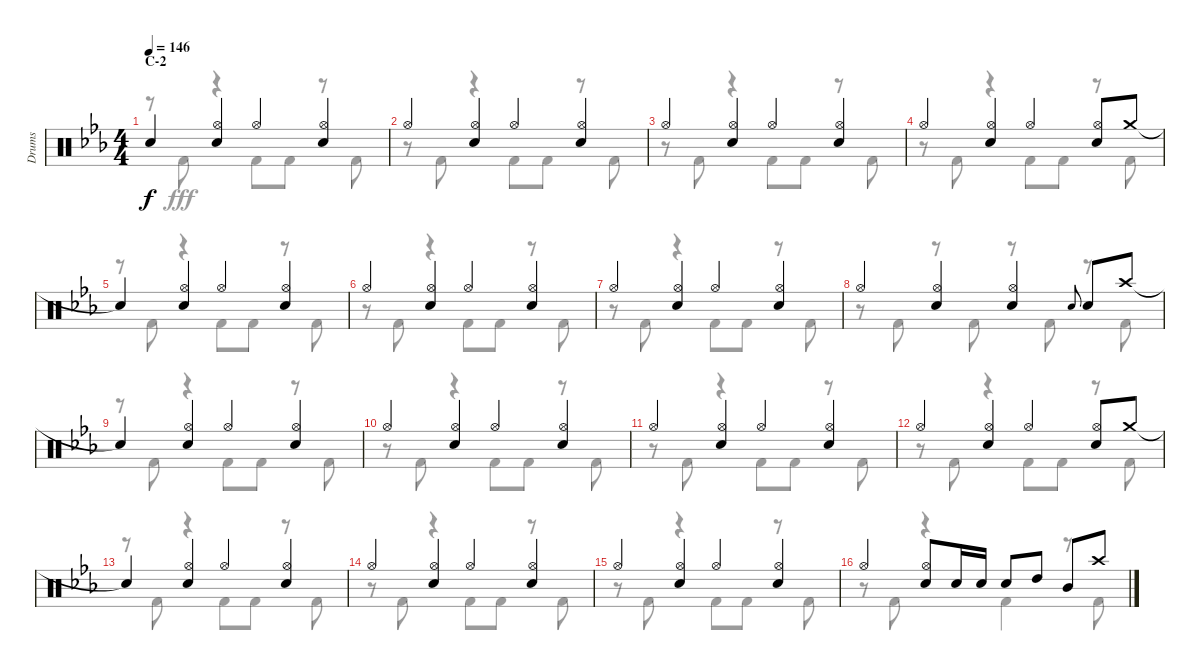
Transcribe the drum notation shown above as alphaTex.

\track ("Drums" "Drums") {instrument percussion}
\staff {score}
\articulation defaults
\voice
\ts (4 4)
\section ("" "C-2")
\tempo 146
\clef neutral
\ks eb "Snare (hit)"{t}.4{dy f}
("Hi-Hat (open)" "Snare (hit) 2").4 "Hi-Hat (open)".4 ("Hi-Hat (open)" "Snare (hit) 2").4 |
"Hi-Hat (open)".4 ("Hi-Hat (open)" "Snare (hit) 2").4 "Hi-Hat (open)".4 ("Hi-Hat (open)" "Snare (hit) 2").4 |
"Hi-Hat (open)".4 ("Hi-Hat (open)" "Snare (hit) 2").4 "Hi-Hat (open)".4 ("Hi-Hat (open)" "Snare (hit) 2").4 |
"Hi-Hat (open)".4 ("Hi-Hat (open)" "Snare (hit) 2").4 "Hi-Hat (open)".4 ("Hi-Hat (open)" "Snare (hit) 2").8 "Crash medium (hit)".8 |
"Snare (hit)"{t}.4 ("Hi-Hat (open)" "Snare (hit) 2").4 "Hi-Hat (open)".4 ("Hi-Hat (open)" "Snare (hit) 2").4 |
"Hi-Hat (open)".4 ("Hi-Hat (open)" "Snare (hit) 2").4 "Hi-Hat (open)".4 ("Hi-Hat (open)" "Snare (hit) 2").4 |
"Hi-Hat (open)".4 ("Hi-Hat (open)" "Snare (hit) 2").4 "Hi-Hat (open)".4 ("Hi-Hat (open)" "Snare (hit) 2").4 |
"Hi-Hat (open)".4 ("Hi-Hat (open)" "Snare (hit) 2").4 ("Hi-Hat (open)" "Snare (hit) 2").4 "Snare (hit) 2".8{gr onbeat} "Snare (hit) 2".8 "Crash high (hit)".8 |
"Snare (hit)"{t}.4 ("Hi-Hat (open)" "Snare (hit) 2").4 "Hi-Hat (open)".4 ("Hi-Hat (open)" "Snare (hit) 2").4 |
"Hi-Hat (open)".4 ("Hi-Hat (open)" "Snare (hit) 2").4 "Hi-Hat (open)".4 ("Hi-Hat (open)" "Snare (hit) 2").4 |
"Hi-Hat (open)".4 ("Hi-Hat (open)" "Snare (hit) 2").4 "Hi-Hat (open)".4 ("Hi-Hat (open)" "Snare (hit) 2").4 |
"Hi-Hat (open)".4 ("Hi-Hat (open)" "Snare (hit) 2").4 "Hi-Hat (open)".4 ("Hi-Hat (open)" "Snare (hit) 2").8 "Crash medium (hit)".8 |
"Snare (hit)"{t}.4 ("Hi-Hat (open)" "Snare (hit) 2").4 "Hi-Hat (open)".4 ("Hi-Hat (open)" "Snare (hit) 2").4 |
"Hi-Hat (open)".4 ("Hi-Hat (open)" "Snare (hit) 2").4 "Hi-Hat (open)".4 ("Hi-Hat (open)" "Snare (hit) 2").4 |
"Hi-Hat (open)".4 ("Hi-Hat (open)" "Snare (hit) 2").4 "Hi-Hat (open)".4 ("Hi-Hat (open)" "Snare (hit) 2").4 |
"Hi-Hat (open)".4 ("Hi-Hat (open)" "Snare (hit) 2").8 "Snare (hit) 2".16 "Snare (hit) 2".16 "Snare (hit) 2".8 "High Tom (hit)".8 "Mid Tom (hit)".8 "Crash high (hit)".8
\voice
\clef neutral
\ottava regular
\simile none
\ks eb
r.8{dy fff} "Kick (hit) 2".8 r.4 "Kick (hit) 2".8 "Kick (hit) 2".8 r.8 "Kick (hit) 2".8 |
r.8 "Kick (hit) 2".8 r.4 "Kick (hit) 2".8 "Kick (hit) 2".8 r.8 "Kick (hit) 2".8 |
r.8 "Kick (hit) 2".8 r.4 "Kick (hit) 2".8 "Kick (hit) 2".8 r.8 "Kick (hit) 2".8 |
r.8 "Kick (hit) 2".8 r.4 "Kick (hit) 2".8 "Kick (hit) 2".8 r.8 "Kick (hit) 2".8 |
r.8 "Kick (hit) 2".8 r.4 "Kick (hit) 2".8 "Kick (hit) 2".8 r.8 "Kick (hit) 2".8 |
r.8 "Kick (hit) 2".8 r.4 "Kick (hit) 2".8 "Kick (hit) 2".8 r.8 "Kick (hit) 2".8 |
r.8 "Kick (hit) 2".8 r.4 "Kick (hit) 2".8 "Kick (hit) 2".8 r.8 "Kick (hit) 2".8 |
r.8 "Kick (hit) 2".8 r.8 "Kick (hit) 2".8 r.8 "Kick (hit) 2".8 r.8 "Kick (hit) 2".8 |
r.8 "Kick (hit) 2".8 r.4 "Kick (hit) 2".8 "Kick (hit) 2".8 r.8 "Kick (hit) 2".8 |
r.8 "Kick (hit) 2".8 r.4 "Kick (hit) 2".8 "Kick (hit) 2".8 r.8 "Kick (hit) 2".8 |
r.8 "Kick (hit) 2".8 r.4 "Kick (hit) 2".8 "Kick (hit) 2".8 r.8 "Kick (hit) 2".8 |
r.8 "Kick (hit) 2".8 r.4 "Kick (hit) 2".8 "Kick (hit) 2".8 r.8 "Kick (hit) 2".8 |
r.8 "Kick (hit) 2".8 r.4 "Kick (hit) 2".8 "Kick (hit) 2".8 r.8 "Kick (hit) 2".8 |
r.8 "Kick (hit) 2".8 r.4 "Kick (hit) 2".8 "Kick (hit) 2".8 r.8 "Kick (hit) 2".8 |
r.8 "Kick (hit) 2".8 r.4 "Kick (hit) 2".8 "Kick (hit) 2".8 r.8 "Kick (hit) 2".8 |
r.8 "Kick (hit) 2".8 r.4 "Kick (hit) 2".4 r.8 "Kick (hit) 2".8
